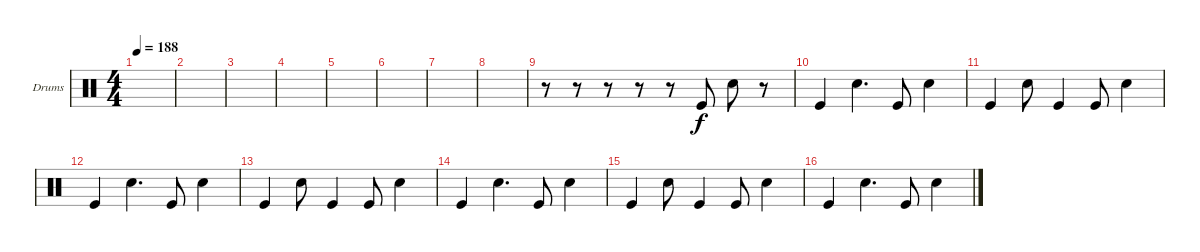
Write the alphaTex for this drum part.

\defaultSystemsLayout 4
\bracketExtendMode groupsimilarinstruments
\firstSystemTrackNameOrientation horizontal
\otherSystemsTrackNameOrientation horizontal
\track ("Пашок" "Drums") {instrument percussion}
\staff {score}
\articulation defaults
\ts (4 4)
\tempo 188
\clef neutral
\ks c
|
|
|
|
|
|
|
|
r.8 r.8 r.8 r.8 r.8 "Kick (hit)".8 "Snare (hit) 2".8 r.8 |
"Kick (hit)".4 "Snare (hit) 2".4{d} "Kick (hit)".8 "Snare (hit) 2".4 |
"Kick (hit)".4 "Snare (hit) 2".8 "Kick (hit)".4 "Kick (hit)".8 "Snare (hit) 2".4 |
"Kick (hit)".4 "Snare (hit) 2".4{d} "Kick (hit)".8 "Snare (hit) 2".4 |
"Kick (hit)".4 "Snare (hit) 2".8 "Kick (hit)".4 "Kick (hit)".8 "Snare (hit) 2".4 |
"Kick (hit)".4 "Snare (hit) 2".4{d} "Kick (hit)".8 "Snare (hit) 2".4 |
"Kick (hit)".4 "Snare (hit) 2".8 "Kick (hit)".4 "Kick (hit)".8 "Snare (hit) 2".4 |
"Kick (hit)".4 "Snare (hit) 2".4{d} "Kick (hit)".8 "Snare (hit) 2".4
